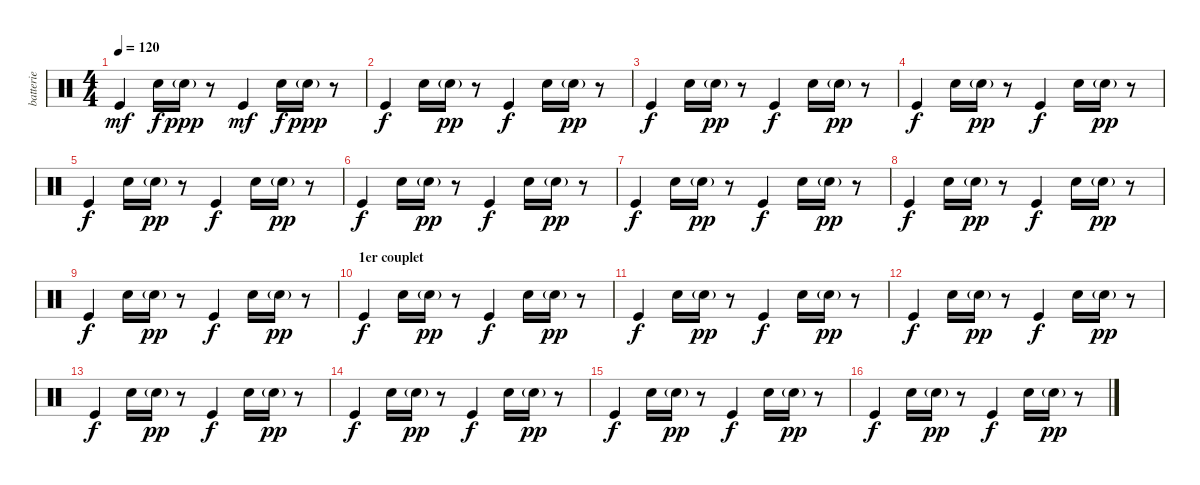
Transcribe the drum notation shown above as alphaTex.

\track ("batterie" "batterie") {instrument percussion}
\staff {score}
\articulation defaults
\ts (4 4)
\tempo 120
\clef neutral
\ks c "Kick (hit)".4{dy mf} "Electric Snare (hit)".16{dy f} "Electric Snare (hit)"{g}.16{dy ppp}
r.8 "Kick (hit)".4{dy mf} "Electric Snare (hit)".16{dy f} "Electric Snare (hit)"{g}.16{dy ppp} r.8 |
"Kick (hit)".4{dy f} "Electric Snare (hit)".16 "Electric Snare (hit)"{g}.16{dy pp} r.8 "Kick (hit)".4{dy f} "Electric Snare (hit)".16 "Electric Snare (hit)"{g}.16{dy pp} r.8 |
"Kick (hit)".4{dy f} "Electric Snare (hit)".16 "Electric Snare (hit)"{g}.16{dy pp} r.8 "Kick (hit)".4{dy f} "Electric Snare (hit)".16 "Electric Snare (hit)"{g}.16{dy pp} r.8 |
"Kick (hit)".4{dy f} "Electric Snare (hit)".16 "Electric Snare (hit)"{g}.16{dy pp} r.8 "Kick (hit)".4{dy f} "Electric Snare (hit)".16 "Electric Snare (hit)"{g}.16{dy pp} r.8 |
"Kick (hit)".4{dy f} "Electric Snare (hit)".16 "Electric Snare (hit)"{g}.16{dy pp} r.8 "Kick (hit)".4{dy f} "Electric Snare (hit)".16 "Electric Snare (hit)"{g}.16{dy pp} r.8 |
"Kick (hit)".4{dy f} "Electric Snare (hit)".16 "Electric Snare (hit)"{g}.16{dy pp} r.8 "Kick (hit)".4{dy f} "Electric Snare (hit)".16 "Electric Snare (hit)"{g}.16{dy pp} r.8 |
"Kick (hit)".4{dy f} "Electric Snare (hit)".16 "Electric Snare (hit)"{g}.16{dy pp} r.8 "Kick (hit)".4{dy f} "Electric Snare (hit)".16 "Electric Snare (hit)"{g}.16{dy pp} r.8 |
"Kick (hit)".4{dy f} "Electric Snare (hit)".16 "Electric Snare (hit)"{g}.16{dy pp} r.8 "Kick (hit)".4{dy f} "Electric Snare (hit)".16 "Electric Snare (hit)"{g}.16{dy pp} r.8 |
"Kick (hit)".4{dy f} "Electric Snare (hit)".16 "Electric Snare (hit)"{g}.16{dy pp} r.8 "Kick (hit)".4{dy f} "Electric Snare (hit)".16 "Electric Snare (hit)"{g}.16{dy pp} r.8 |
\section ("" "1er couplet")
"Kick (hit)".4{dy f} "Electric Snare (hit)".16 "Electric Snare (hit)"{g}.16{dy pp} r.8 "Kick (hit)".4{dy f} "Electric Snare (hit)".16 "Electric Snare (hit)"{g}.16{dy pp} r.8 |
"Kick (hit)".4{dy f} "Electric Snare (hit)".16 "Electric Snare (hit)"{g}.16{dy pp} r.8 "Kick (hit)".4{dy f} "Electric Snare (hit)".16 "Electric Snare (hit)"{g}.16{dy pp} r.8 |
"Kick (hit)".4{dy f} "Electric Snare (hit)".16 "Electric Snare (hit)"{g}.16{dy pp} r.8 "Kick (hit)".4{dy f} "Electric Snare (hit)".16 "Electric Snare (hit)"{g}.16{dy pp} r.8 |
"Kick (hit)".4{dy f} "Electric Snare (hit)".16 "Electric Snare (hit)"{g}.16{dy pp} r.8 "Kick (hit)".4{dy f} "Electric Snare (hit)".16 "Electric Snare (hit)"{g}.16{dy pp} r.8 |
"Kick (hit)".4{dy f} "Electric Snare (hit)".16 "Electric Snare (hit)"{g}.16{dy pp} r.8 "Kick (hit)".4{dy f} "Electric Snare (hit)".16 "Electric Snare (hit)"{g}.16{dy pp} r.8 |
"Kick (hit)".4{dy f} "Electric Snare (hit)".16 "Electric Snare (hit)"{g}.16{dy pp} r.8 "Kick (hit)".4{dy f} "Electric Snare (hit)".16 "Electric Snare (hit)"{g}.16{dy pp} r.8 |
"Kick (hit)".4{dy f} "Electric Snare (hit)".16 "Electric Snare (hit)"{g}.16{dy pp} r.8 "Kick (hit)".4{dy f} "Electric Snare (hit)".16 "Electric Snare (hit)"{g}.16{dy pp} r.8
